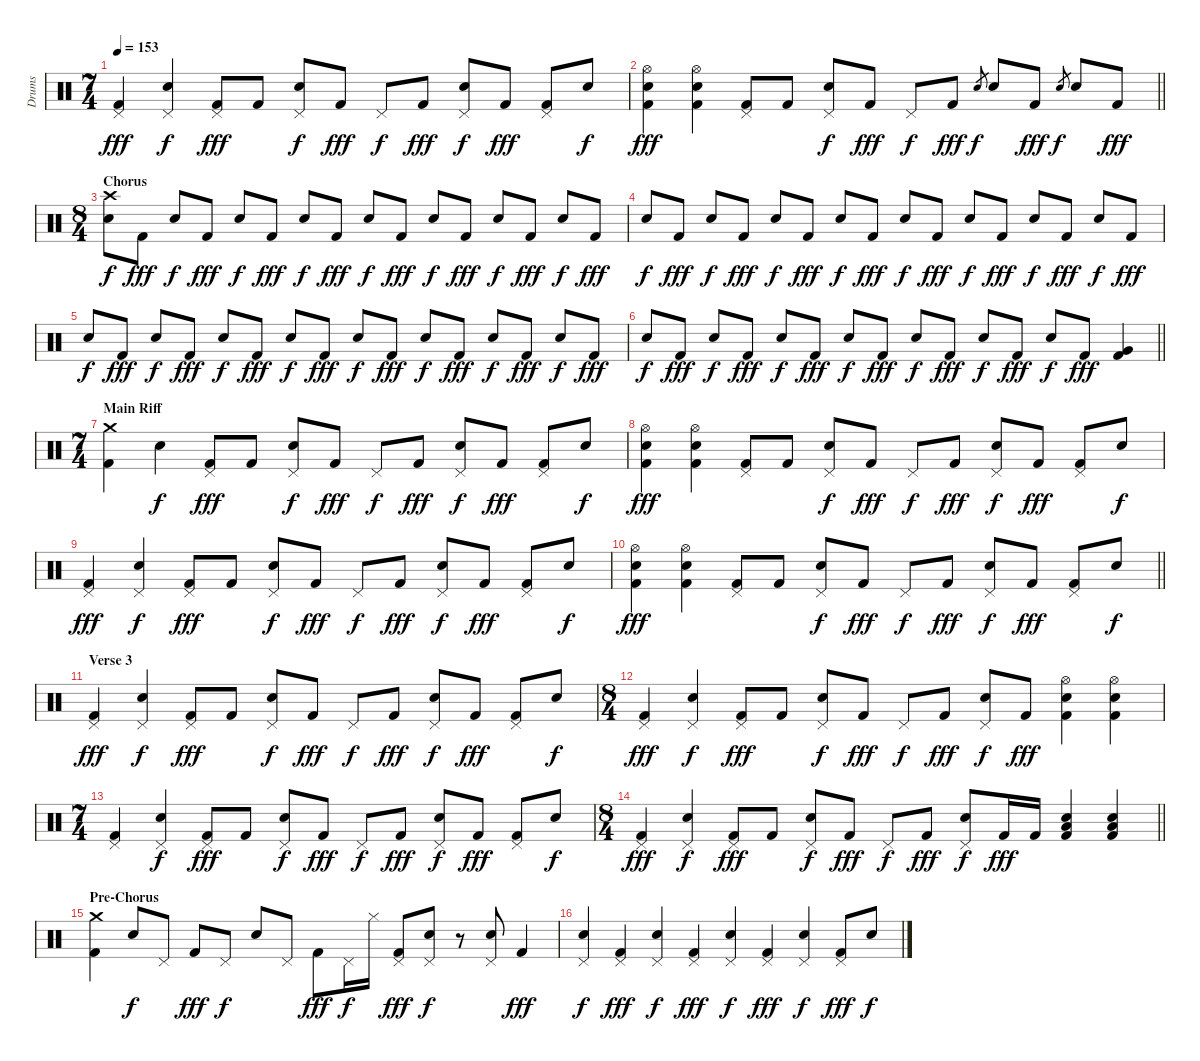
\track ("Drums" "Drums") {instrument percussion}
\staff {score}
\articulation defaults
\ts (7 4)
\tempo 153
\clef neutral
\ks c
("Pedal Hi-Hat (hit)" "Kick (hit) 2").4{dy fff} ("Pedal Hi-Hat (hit)" "Electric Snare (hit)").4{dy f} ("Pedal Hi-Hat (hit)" "Kick (hit) 2").8{dy fff} "Kick (hit) 2".8 ("Pedal Hi-Hat (hit)" "Electric Snare (hit)").8{dy f} "Kick (hit) 2".8{dy fff} "Pedal Hi-Hat (hit)".8{dy f} "Kick (hit) 2".8{dy fff} ("Pedal Hi-Hat (hit)" "Electric Snare (hit)").8{dy f} "Kick (hit) 2".8{dy fff} ("Pedal Hi-Hat (hit)" "Kick (hit) 2").8 "Electric Snare (hit)".8{dy f} |
\barLineRight lightlight
("Hi-Hat (open)" "Electric Snare (hit)" "Kick (hit) 2").4{dy fff} ("Hi-Hat (open)" "Electric Snare (hit)" "Kick (hit) 2").4 ("Pedal Hi-Hat (hit)" "Kick (hit) 2").8 "Kick (hit) 2".8 ("Pedal Hi-Hat (hit)" "Electric Snare (hit)").8{dy f} "Kick (hit) 2".8{dy fff} "Pedal Hi-Hat (hit)".8{dy f} "Kick (hit) 2".8{dy fff} "Electric Snare (hit)".8{gr dy f} "Electric Snare (hit)".8 "Kick (hit) 2".8{dy fff} "Electric Snare (hit)".8{gr dy f} "Electric Snare (hit)".8 "Kick (hit) 2".8{dy fff} |
\ts (8 4)
\section ("" "Chorus")
("Crash high (hit)" "Electric Snare (hit)").8{dy f} "Kick (hit) 2".8{dy fff} "Electric Snare (hit)".8{dy f} "Kick (hit) 2".8{dy fff} "Electric Snare (hit)".8{dy f} "Kick (hit) 2".8{dy fff} "Electric Snare (hit)".8{dy f} "Kick (hit) 2".8{dy fff} "Electric Snare (hit)".8{dy f} "Kick (hit) 2".8{dy fff} "Electric Snare (hit)".8{dy f} "Kick (hit) 2".8{dy fff} "Electric Snare (hit)".8{dy f} "Kick (hit) 2".8{dy fff} "Electric Snare (hit)".8{dy f} "Kick (hit) 2".8{dy fff} |
"Electric Snare (hit)".8{dy f} "Kick (hit) 2".8{dy fff} "Electric Snare (hit)".8{dy f} "Kick (hit) 2".8{dy fff} "Electric Snare (hit)".8{dy f} "Kick (hit) 2".8{dy fff} "Electric Snare (hit)".8{dy f} "Kick (hit) 2".8{dy fff} "Electric Snare (hit)".8{dy f} "Kick (hit) 2".8{dy fff} "Electric Snare (hit)".8{dy f} "Kick (hit) 2".8{dy fff} "Electric Snare (hit)".8{dy f} "Kick (hit) 2".8{dy fff} "Electric Snare (hit)".8{dy f} "Kick (hit) 2".8{dy fff} |
"Electric Snare (hit)".8{dy f} "Kick (hit) 2".8{dy fff} "Electric Snare (hit)".8{dy f} "Kick (hit) 2".8{dy fff} "Electric Snare (hit)".8{dy f} "Kick (hit) 2".8{dy fff} "Electric Snare (hit)".8{dy f} "Kick (hit) 2".8{dy fff} "Electric Snare (hit)".8{dy f} "Kick (hit) 2".8{dy fff} "Electric Snare (hit)".8{dy f} "Kick (hit) 2".8{dy fff} "Electric Snare (hit)".8{dy f} "Kick (hit) 2".8{dy fff} "Electric Snare (hit)".8{dy f} "Kick (hit) 2".8{dy fff} |
\barLineRight lightlight "Electric Snare (hit)".8{dy f} "Kick (hit) 2".8{dy fff} "Electric Snare (hit)".8{dy f} "Kick (hit) 2".8{dy fff} "Electric Snare (hit)".8{dy f} "Kick (hit) 2".8{dy fff} "Electric Snare (hit)".8{dy f} "Kick (hit) 2".8{dy fff} "Electric Snare (hit)".8{dy f} "Kick (hit) 2".8{dy fff} "Electric Snare (hit)".8{dy f} "Kick (hit) 2".8{dy fff} "Electric Snare (hit)".8{dy f} "Kick (hit) 2".8{dy fff}
("Very Low Tom (hit)" "Kick (hit) 2").4 |
\ts (7 4)
\section ("" "Main Riff")
("Crash medium (hit)" "Kick (hit) 2").4 "Electric Snare (hit)".4{dy f} ("Pedal Hi-Hat (hit)" "Kick (hit) 2").8{dy fff} "Kick (hit) 2".8 ("Pedal Hi-Hat (hit)" "Electric Snare (hit)").8{dy f} "Kick (hit) 2".8{dy fff} "Pedal Hi-Hat (hit)".8{dy f} "Kick (hit) 2".8{dy fff} ("Pedal Hi-Hat (hit)" "Electric Snare (hit)").8{dy f} "Kick (hit) 2".8{dy fff} ("Pedal Hi-Hat (hit)" "Kick (hit) 2").8 "Electric Snare (hit)".8{dy f} |
("Hi-Hat (open)" "Electric Snare (hit)" "Kick (hit) 2").4{dy fff} ("Hi-Hat (open)" "Electric Snare (hit)" "Kick (hit) 2").4 ("Pedal Hi-Hat (hit)" "Kick (hit) 2").8 "Kick (hit) 2".8 ("Pedal Hi-Hat (hit)" "Electric Snare (hit)").8{dy f} "Kick (hit) 2".8{dy fff} "Pedal Hi-Hat (hit)".8{dy f} "Kick (hit) 2".8{dy fff} ("Pedal Hi-Hat (hit)" "Electric Snare (hit)").8{dy f} "Kick (hit) 2".8{dy fff} ("Pedal Hi-Hat (hit)" "Kick (hit) 2").8 "Electric Snare (hit)".8{dy f} |
("Pedal Hi-Hat (hit)" "Kick (hit) 2").4{dy fff} ("Pedal Hi-Hat (hit)" "Electric Snare (hit)").4{dy f} ("Pedal Hi-Hat (hit)" "Kick (hit) 2").8{dy fff} "Kick (hit) 2".8 ("Pedal Hi-Hat (hit)" "Electric Snare (hit)").8{dy f} "Kick (hit) 2".8{dy fff} "Pedal Hi-Hat (hit)".8{dy f} "Kick (hit) 2".8{dy fff} ("Pedal Hi-Hat (hit)" "Electric Snare (hit)").8{dy f} "Kick (hit) 2".8{dy fff} ("Pedal Hi-Hat (hit)" "Kick (hit) 2").8 "Electric Snare (hit)".8{dy f} |
\barLineRight lightlight
("Hi-Hat (open)" "Electric Snare (hit)" "Kick (hit) 2").4{dy fff} ("Hi-Hat (open)" "Electric Snare (hit)" "Kick (hit) 2").4 ("Pedal Hi-Hat (hit)" "Kick (hit) 2").8 "Kick (hit) 2".8 ("Pedal Hi-Hat (hit)" "Electric Snare (hit)").8{dy f} "Kick (hit) 2".8{dy fff} "Pedal Hi-Hat (hit)".8{dy f} "Kick (hit) 2".8{dy fff} ("Pedal Hi-Hat (hit)" "Electric Snare (hit)").8{dy f} "Kick (hit) 2".8{dy fff} ("Pedal Hi-Hat (hit)" "Kick (hit) 2").8 "Electric Snare (hit)".8{dy f} |
\section ("" "Verse 3")
("Pedal Hi-Hat (hit)" "Kick (hit) 2").4{dy fff} ("Pedal Hi-Hat (hit)" "Electric Snare (hit)").4{dy f} ("Pedal Hi-Hat (hit)" "Kick (hit) 2").8{dy fff} "Kick (hit) 2".8 ("Pedal Hi-Hat (hit)" "Electric Snare (hit)").8{dy f} "Kick (hit) 2".8{dy fff} "Pedal Hi-Hat (hit)".8{dy f} "Kick (hit) 2".8{dy fff} ("Pedal Hi-Hat (hit)" "Electric Snare (hit)").8{dy f} "Kick (hit) 2".8{dy fff} ("Pedal Hi-Hat (hit)" "Kick (hit) 2").8 "Electric Snare (hit)".8{dy f} |
\ts (8 4)
("Pedal Hi-Hat (hit)" "Kick (hit) 2").4{dy fff} ("Pedal Hi-Hat (hit)" "Electric Snare (hit)").4{dy f} ("Pedal Hi-Hat (hit)" "Kick (hit) 2").8{dy fff} "Kick (hit) 2".8 ("Pedal Hi-Hat (hit)" "Electric Snare (hit)").8{dy f} "Kick (hit) 2".8{dy fff} "Pedal Hi-Hat (hit)".8{dy f} "Kick (hit) 2".8{dy fff} ("Pedal Hi-Hat (hit)" "Electric Snare (hit)").8{dy f} "Kick (hit) 2".8{dy fff} ("Hi-Hat (open)" "Electric Snare (hit)" "Kick (hit) 2").4 ("Hi-Hat (open)" "Electric Snare (hit)" "Kick (hit) 2").4 |
\ts (7 4)
("Pedal Hi-Hat (hit)" "Kick (hit) 2").4 ("Pedal Hi-Hat (hit)" "Electric Snare (hit)").4{dy f} ("Pedal Hi-Hat (hit)" "Kick (hit) 2").8{dy fff} "Kick (hit) 2".8 ("Pedal Hi-Hat (hit)" "Electric Snare (hit)").8{dy f} "Kick (hit) 2".8{dy fff} "Pedal Hi-Hat (hit)".8{dy f} "Kick (hit) 2".8{dy fff} ("Pedal Hi-Hat (hit)" "Electric Snare (hit)").8{dy f} "Kick (hit) 2".8{dy fff} ("Pedal Hi-Hat (hit)" "Kick (hit) 2").8 "Electric Snare (hit)".8{dy f} |
\ts (8 4)
\barLineRight lightlight
("Pedal Hi-Hat (hit)" "Kick (hit) 2").4{dy fff} ("Pedal Hi-Hat (hit)" "Electric Snare (hit)").4{dy f} ("Pedal Hi-Hat (hit)" "Kick (hit) 2").8{dy fff} "Kick (hit) 2".8 ("Pedal Hi-Hat (hit)" "Electric Snare (hit)").8{dy f} "Kick (hit) 2".8{dy fff} "Pedal Hi-Hat (hit)".8{dy f} "Kick (hit) 2".8{dy fff} ("Pedal Hi-Hat (hit)" "Electric Snare (hit)").8{dy f} "Kick (hit) 2".16{dy fff} "Kick (hit) 2".16 ("Electric Snare (hit)" "Low Floor Tom (hit)" "Kick (hit) 2").4 ("Electric Snare (hit)" "Low Floor Tom (hit)" "Kick (hit) 2").4 |
\section ("" "Pre-Chorus")
("Crash medium (hit)" "Kick (hit) 2").4 "Electric Snare (hit)".8{dy f} "Pedal Hi-Hat (hit)".8 "Kick (hit) 2".8{dy fff} "Pedal Hi-Hat (hit)".8{dy f} "Electric Snare (hit)".8 "Pedal Hi-Hat (hit)".8 "Kick (hit) 2".8{dy fff} "Pedal Hi-Hat (hit)".16{dy f} "Hi-Hat (closed)".16 ("Pedal Hi-Hat (hit)" "Kick (hit) 2").8{dy fff} ("Pedal Hi-Hat (hit)" "Electric Snare (hit)").8{dy f} r.8 ("Pedal Hi-Hat (hit)" "Electric Snare (hit)").8 "Kick (hit) 2".4{dy fff} |
("Pedal Hi-Hat (hit)" "Electric Snare (hit)").4{dy f} ("Pedal Hi-Hat (hit)" "Kick (hit) 2").4{dy fff} ("Pedal Hi-Hat (hit)" "Electric Snare (hit)").4{dy f} ("Pedal Hi-Hat (hit)" "Kick (hit) 2").4{dy fff} ("Pedal Hi-Hat (hit)" "Electric Snare (hit)").4{dy f} ("Pedal Hi-Hat (hit)" "Kick (hit) 2").4{dy fff} ("Pedal Hi-Hat (hit)" "Electric Snare (hit)").4{dy f} ("Pedal Hi-Hat (hit)" "Kick (hit) 2").8{dy fff} "Electric Snare (hit)".8{dy f}
